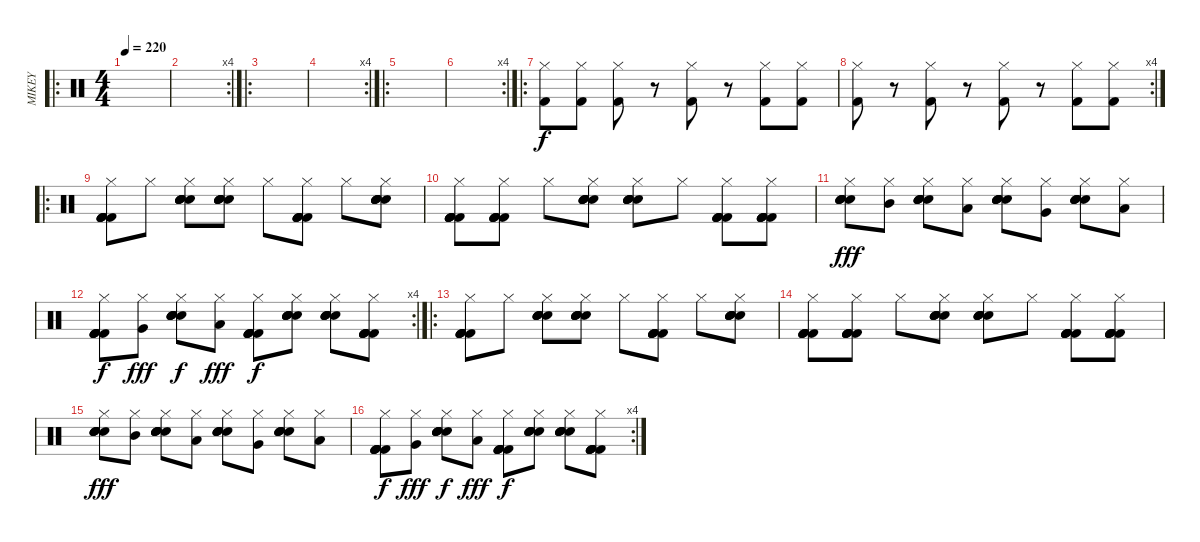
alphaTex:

\track ("MIKEY" "MIKEY") {instrument percussion}
\staff {score}
\articulation defaults
\ro
\ts (4 4)
\tempo 220
\clef neutral
\ks c
|
\rc 4
|
\ro
|
\rc 4
|
\ro
|
\rc 4
|
\ro
("Hi-Hat (closed)" "Kick (hit) 2").8 ("Hi-Hat (closed)" "Kick (hit) 2").8 ("Hi-Hat (closed)" "Kick (hit) 2").8 r.8 ("Hi-Hat (closed)" "Kick (hit) 2").8 r.8 ("Hi-Hat (closed)" "Kick (hit) 2").8 ("Hi-Hat (closed)" "Kick (hit) 2").8 |
\rc 4
("Hi-Hat (closed)" "Kick (hit) 2").8 r.8 ("Hi-Hat (closed)" "Kick (hit) 2").8 r.8 ("Hi-Hat (closed)" "Kick (hit) 2").8 r.8 ("Hi-Hat (closed)" "Kick (hit) 2").8 ("Hi-Hat (closed)" "Kick (hit) 2").8 |
\ro
("Kick (hit) 2" "Kick (hit) 2" "Kick (hit) 2" "Kick (hit) 2" "Kick (hit) 2" "Hi-Hat (closed)").8 "Hi-Hat (closed)".8 ("Electric Snare (hit)" "Electric Snare (hit)" "Electric Snare (hit)" "Electric Snare (hit)" "Electric Snare (hit)" "Hi-Hat (closed)").8 ("Electric Snare (hit)" "Electric Snare (hit)" "Electric Snare (hit)" "Electric Snare (hit)" "Electric Snare (hit)" "Hi-Hat (closed)").8 "Hi-Hat (closed)".8 ("Kick (hit) 2" "Kick (hit) 2" "Kick (hit) 2" "Kick (hit) 2" "Kick (hit) 2" "Hi-Hat (closed)").8 "Hi-Hat (closed)".8 ("Electric Snare (hit)" "Electric Snare (hit)" "Electric Snare (hit)" "Electric Snare (hit)" "Electric Snare (hit)" "Hi-Hat (closed)").8 |
("Kick (hit) 2" "Kick (hit) 2" "Kick (hit) 2" "Kick (hit) 2" "Kick (hit) 2" "Hi-Hat (closed)").8 ("Kick (hit) 2" "Kick (hit) 2" "Kick (hit) 2" "Kick (hit) 2" "Kick (hit) 2" "Hi-Hat (closed)").8 "Hi-Hat (closed)".8 ("Electric Snare (hit)" "Electric Snare (hit)" "Electric Snare (hit)" "Electric Snare (hit)" "Electric Snare (hit)" "Hi-Hat (closed)").8 ("Electric Snare (hit)" "Electric Snare (hit)" "Electric Snare (hit)" "Electric Snare (hit)" "Electric Snare (hit)" "Hi-Hat (closed)").8 "Hi-Hat (closed)".8 ("Kick (hit) 2" "Kick (hit) 2" "Kick (hit) 2" "Kick (hit) 2" "Kick (hit) 2" "Hi-Hat (closed)").8 ("Kick (hit) 2" "Kick (hit) 2" "Kick (hit) 2" "Kick (hit) 2" "Kick (hit) 2" "Hi-Hat (closed)").8 |
("Electric Snare (hit)" "Electric Snare (hit)" "Electric Snare (hit)" "Electric Snare (hit)" "Electric Snare (hit)" "Hi-Hat (closed)").8{dy fff} ("Mid Tom (hit)" "Hi-Hat (closed)").8 ("Electric Snare (hit)" "Electric Snare (hit)" "Electric Snare (hit)" "Electric Snare (hit)" "Electric Snare (hit)" "Hi-Hat (closed)").8 ("Low Tom (hit)" "Hi-Hat (closed)").8 ("Electric Snare (hit)" "Electric Snare (hit)" "Electric Snare (hit)" "Electric Snare (hit)" "Electric Snare (hit)" "Hi-Hat (closed)").8 ("Very Low Tom (hit)" "Hi-Hat (closed)").8 ("Electric Snare (hit)" "Electric Snare (hit)" "Electric Snare (hit)" "Electric Snare (hit)" "Electric Snare (hit)" "Hi-Hat (closed)").8 ("Low Floor Tom (hit)" "Hi-Hat (closed)").8 |
\rc 4
("Kick (hit) 2" "Kick (hit) 2" "Kick (hit) 2" "Kick (hit) 2" "Kick (hit) 2" "Hi-Hat (closed)").8{dy f} ("Very Low Tom (hit)" "Hi-Hat (closed)").8{dy fff} ("Electric Snare (hit)" "Electric Snare (hit)" "Electric Snare (hit)" "Electric Snare (hit)" "Electric Snare (hit)" "Hi-Hat (closed)").8{dy f} ("Low Floor Tom (hit)" "Hi-Hat (closed)").8{dy fff} ("Kick (hit) 2" "Kick (hit) 2" "Kick (hit) 2" "Kick (hit) 2" "Kick (hit) 2" "Hi-Hat (closed)").8{dy f} ("Electric Snare (hit)" "Electric Snare (hit)" "Electric Snare (hit)" "Electric Snare (hit)" "Electric Snare (hit)" "Hi-Hat (closed)").8 ("Electric Snare (hit)" "Electric Snare (hit)" "Electric Snare (hit)" "Electric Snare (hit)" "Electric Snare (hit)" "Hi-Hat (closed)").8 ("Kick (hit) 2" "Kick (hit) 2" "Kick (hit) 2" "Kick (hit) 2" "Kick (hit) 2" "Hi-Hat (closed)").8 |
\ro
("Kick (hit) 2" "Kick (hit) 2" "Kick (hit) 2" "Kick (hit) 2" "Kick (hit) 2" "Hi-Hat (closed)").8 "Hi-Hat (closed)".8 ("Electric Snare (hit)" "Electric Snare (hit)" "Electric Snare (hit)" "Electric Snare (hit)" "Electric Snare (hit)" "Hi-Hat (closed)").8 ("Electric Snare (hit)" "Electric Snare (hit)" "Electric Snare (hit)" "Electric Snare (hit)" "Electric Snare (hit)" "Hi-Hat (closed)").8 "Hi-Hat (closed)".8 ("Kick (hit) 2" "Kick (hit) 2" "Kick (hit) 2" "Kick (hit) 2" "Kick (hit) 2" "Hi-Hat (closed)").8 "Hi-Hat (closed)".8 ("Electric Snare (hit)" "Electric Snare (hit)" "Electric Snare (hit)" "Electric Snare (hit)" "Electric Snare (hit)" "Hi-Hat (closed)").8 |
("Kick (hit) 2" "Kick (hit) 2" "Kick (hit) 2" "Kick (hit) 2" "Kick (hit) 2" "Hi-Hat (closed)").8 ("Kick (hit) 2" "Kick (hit) 2" "Kick (hit) 2" "Kick (hit) 2" "Kick (hit) 2" "Hi-Hat (closed)").8 "Hi-Hat (closed)".8 ("Electric Snare (hit)" "Electric Snare (hit)" "Electric Snare (hit)" "Electric Snare (hit)" "Electric Snare (hit)" "Hi-Hat (closed)").8 ("Electric Snare (hit)" "Electric Snare (hit)" "Electric Snare (hit)" "Electric Snare (hit)" "Electric Snare (hit)" "Hi-Hat (closed)").8 "Hi-Hat (closed)".8 ("Kick (hit) 2" "Kick (hit) 2" "Kick (hit) 2" "Kick (hit) 2" "Kick (hit) 2" "Hi-Hat (closed)").8 ("Kick (hit) 2" "Kick (hit) 2" "Kick (hit) 2" "Kick (hit) 2" "Kick (hit) 2" "Hi-Hat (closed)").8 |
("Electric Snare (hit)" "Electric Snare (hit)" "Electric Snare (hit)" "Electric Snare (hit)" "Electric Snare (hit)" "Hi-Hat (closed)").8{dy fff} ("Mid Tom (hit)" "Hi-Hat (closed)").8 ("Electric Snare (hit)" "Electric Snare (hit)" "Electric Snare (hit)" "Electric Snare (hit)" "Electric Snare (hit)" "Hi-Hat (closed)").8 ("Low Tom (hit)" "Hi-Hat (closed)").8 ("Electric Snare (hit)" "Electric Snare (hit)" "Electric Snare (hit)" "Electric Snare (hit)" "Electric Snare (hit)" "Hi-Hat (closed)").8 ("Very Low Tom (hit)" "Hi-Hat (closed)").8 ("Electric Snare (hit)" "Electric Snare (hit)" "Electric Snare (hit)" "Electric Snare (hit)" "Electric Snare (hit)" "Hi-Hat (closed)").8 ("Low Floor Tom (hit)" "Hi-Hat (closed)").8 |
\rc 4
("Kick (hit) 2" "Kick (hit) 2" "Kick (hit) 2" "Kick (hit) 2" "Kick (hit) 2" "Hi-Hat (closed)").8{dy f} ("Very Low Tom (hit)" "Hi-Hat (closed)").8{dy fff} ("Electric Snare (hit)" "Electric Snare (hit)" "Electric Snare (hit)" "Electric Snare (hit)" "Electric Snare (hit)" "Hi-Hat (closed)").8{dy f} ("Low Floor Tom (hit)" "Hi-Hat (closed)").8{dy fff} ("Kick (hit) 2" "Kick (hit) 2" "Kick (hit) 2" "Kick (hit) 2" "Kick (hit) 2" "Hi-Hat (closed)").8{dy f} ("Electric Snare (hit)" "Electric Snare (hit)" "Electric Snare (hit)" "Electric Snare (hit)" "Electric Snare (hit)" "Hi-Hat (closed)").8 ("Electric Snare (hit)" "Electric Snare (hit)" "Electric Snare (hit)" "Electric Snare (hit)" "Electric Snare (hit)" "Hi-Hat (closed)").8 ("Kick (hit) 2" "Kick (hit) 2" "Kick (hit) 2" "Kick (hit) 2" "Kick (hit) 2" "Hi-Hat (closed)").8
